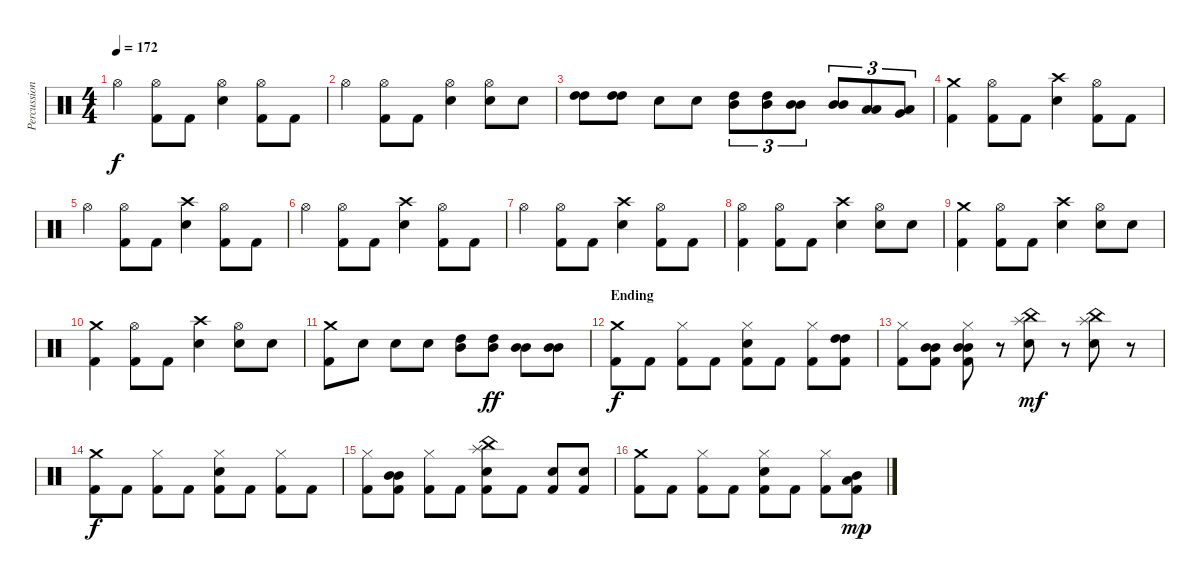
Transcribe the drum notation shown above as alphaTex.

\track ("Percussions" "Percussion") {instrument percussion}
\staff {score}
\articulation defaults
\ts (4 4)
\tempo 172
\clef neutral
\ks c "Hi-Hat (open)".4{dy f}
("Hi-Hat (open)" "Kick (hit) 2").8 "Kick (hit) 2".8 ("Hi-Hat (open)" "Snare (hit) 2").4 ("Hi-Hat (open)" "Kick (hit) 2").8 "Kick (hit) 2".8 |
"Hi-Hat (open)".4 ("Hi-Hat (open)" "Kick (hit) 2").8 "Kick (hit) 2".8 ("Hi-Hat (open)" "Snare (hit) 2").4 ("Hi-Hat (open)" "Snare (hit) 2").8 "Snare (hit) 2".8 |
("High Tom (hit)" "High Tom (hit)").8 ("High Tom (hit)" "High Tom (hit)").8 "Snare (hit) 2".8 "Snare (hit) 2".8 ("High Tom (hit)" "Mid Tom (hit)").8{tu (3 2)} ("High Tom (hit)" "Mid Tom (hit)").8{tu (3 2)} ("Mid Tom (hit)" "Mid Tom (hit)").8{tu (3 2)} ("Mid Tom (hit)" "Mid Tom (hit)").8{tu (3 2)} ("Low Tom (hit)" "Low Tom (hit)").8{tu (3 2)} ("Very Low Tom (hit)" "Low Tom (hit)").8{tu (3 2)} |
("Crash medium (hit)" "Kick (hit) 2").4 ("Hi-Hat (open)" "Kick (hit) 2").8 "Kick (hit) 2".8 ("Crash high (hit)" "Snare (hit) 2").4 ("Hi-Hat (open)" "Kick (hit) 2").8 "Kick (hit) 2".8 |
"Hi-Hat (open)".4 ("Hi-Hat (open)" "Kick (hit) 2").8 "Kick (hit) 2".8 ("Crash high (hit)" "Snare (hit) 2").4 ("Hi-Hat (open)" "Kick (hit) 2").8 "Kick (hit) 2".8 |
"Hi-Hat (open)".4 ("Hi-Hat (open)" "Kick (hit) 2").8 "Kick (hit) 2".8 ("Crash high (hit)" "Snare (hit) 2").4 ("Hi-Hat (open)" "Kick (hit) 2").8 "Kick (hit) 2".8 |
"Hi-Hat (open)".4 ("Hi-Hat (open)" "Kick (hit) 2").8 "Kick (hit) 2".8 ("Crash high (hit)" "Snare (hit) 2").4 ("Hi-Hat (open)" "Kick (hit) 2").8 "Kick (hit) 2".8 |
("Hi-Hat (open)" "Kick (hit) 2").4 ("Hi-Hat (open)" "Kick (hit) 2").8 "Kick (hit) 2".8 ("Crash high (hit)" "Snare (hit) 2").4 ("Hi-Hat (open)" "Snare (hit) 2").8 "Snare (hit) 2".8 |
("Crash medium (hit)" "Kick (hit) 2").4 ("Hi-Hat (open)" "Kick (hit) 2").8 "Kick (hit) 2".8 ("Crash high (hit)" "Snare (hit) 2").4 ("Hi-Hat (open)" "Snare (hit) 2").8 "Snare (hit) 2".8 |
("Crash medium (hit)" "Kick (hit) 2").4 ("Hi-Hat (open)" "Kick (hit) 2").8 "Kick (hit) 2".8 ("Crash high (hit)" "Snare (hit) 2").4 ("Hi-Hat (open)" "Snare (hit) 2").8 "Snare (hit) 2".8 |
("Crash medium (hit)" "Kick (hit) 2").8 "Snare (hit) 2".8 "Snare (hit) 2".8 "Snare (hit) 2".8 ("High Tom (hit)" "Mid Tom (hit)").8 ("High Tom (hit)" "Mid Tom (hit)").8{dy ff} ("Mid Tom (hit)" "Mid Tom (hit)").8 ("Mid Tom (hit)" "Mid Tom (hit)").8 |
\section ("" "Ending")
("Crash medium (hit)" "Kick (hit) 2").8{dy f} "Kick (hit) 2".8 ("Hi-Hat (closed)" "Kick (hit) 2").8 "Kick (hit) 2".8 ("Hi-Hat (closed)" "Snare (hit) 2" "Kick (hit) 2").8 "Kick (hit) 2".8 ("Hi-Hat (closed)" "Kick (hit) 2").8 ("High Tom (hit)" "High Tom (hit)" "Kick (hit) 2").8 |
("Hi-Hat (closed)" "Kick (hit) 2").8 ("Mid Tom (hit)" "Mid Tom (hit)" "Kick (hit) 2").8 ("Hi-Hat (closed)" "Mid Tom (hit)" "Mid Tom (hit)" "Kick (hit) 2").8 r.8 ("China (hit)" "Splash (hit)" "Snare (hit) 2").8{dy mf} r.8 ("China (hit)" "Splash (hit)" "Snare (hit) 2").8 r.8 |
("Crash medium (hit)" "Kick (hit) 2").8{dy f} "Kick (hit) 2".8 ("Hi-Hat (closed)" "Kick (hit) 2").8 "Kick (hit) 2".8 ("Hi-Hat (closed)" "Snare (hit) 2" "Kick (hit) 2").8 "Kick (hit) 2".8 ("Hi-Hat (closed)" "Kick (hit) 2").8 "Kick (hit) 2".8 |
("Hi-Hat (closed)" "Kick (hit) 2").8 ("Mid Tom (hit)" "Mid Tom (hit)" "Kick (hit) 2").8 ("Hi-Hat (closed)" "Kick (hit) 2").8 "Kick (hit) 2".8 ("China (hit)" "Splash (hit)" "Snare (hit) 2" "Kick (hit) 2").8 "Kick (hit) 2".8 ("Snare (hit) 2" "Kick (hit) 2").8 ("Snare (hit) 2" "Kick (hit) 2").8 |
("Crash medium (hit)" "Kick (hit) 2").8 "Kick (hit) 2".8 ("Hi-Hat (closed)" "Kick (hit) 2").8 "Kick (hit) 2".8 ("Hi-Hat (closed)" "Snare (hit) 2" "Kick (hit) 2").8 "Kick (hit) 2".8 ("Hi-Hat (closed)" "Kick (hit) 2").8 ("Mid Tom (hit)" "Low Tom (hit)" "Kick (hit) 2").8{dy mp}
